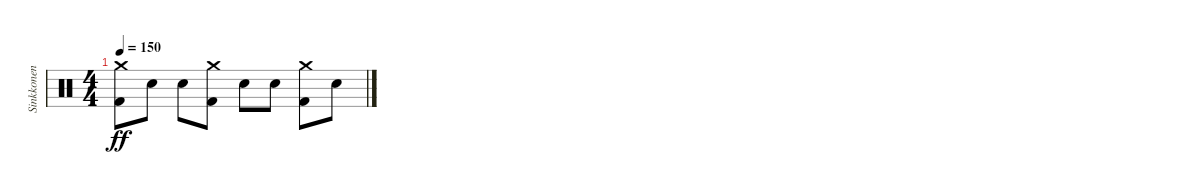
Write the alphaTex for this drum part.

\track ("Sinkkonen" "Sinkkonen") {instrument percussion}
\staff {score}
\articulation defaults
\ts (4 4)
\tempo 150
\clef neutral
\ks c
("Crash medium (hit)" "Kick (hit) 2").8{dy ff} "Snare (hit) 2".8 "Snare (hit) 2".8 ("Crash medium (hit)" "Kick (hit) 2").8 "Snare (hit) 2".8 "Snare (hit) 2".8 ("Crash medium (hit)" "Kick (hit) 2").8 "Snare (hit) 2".8
